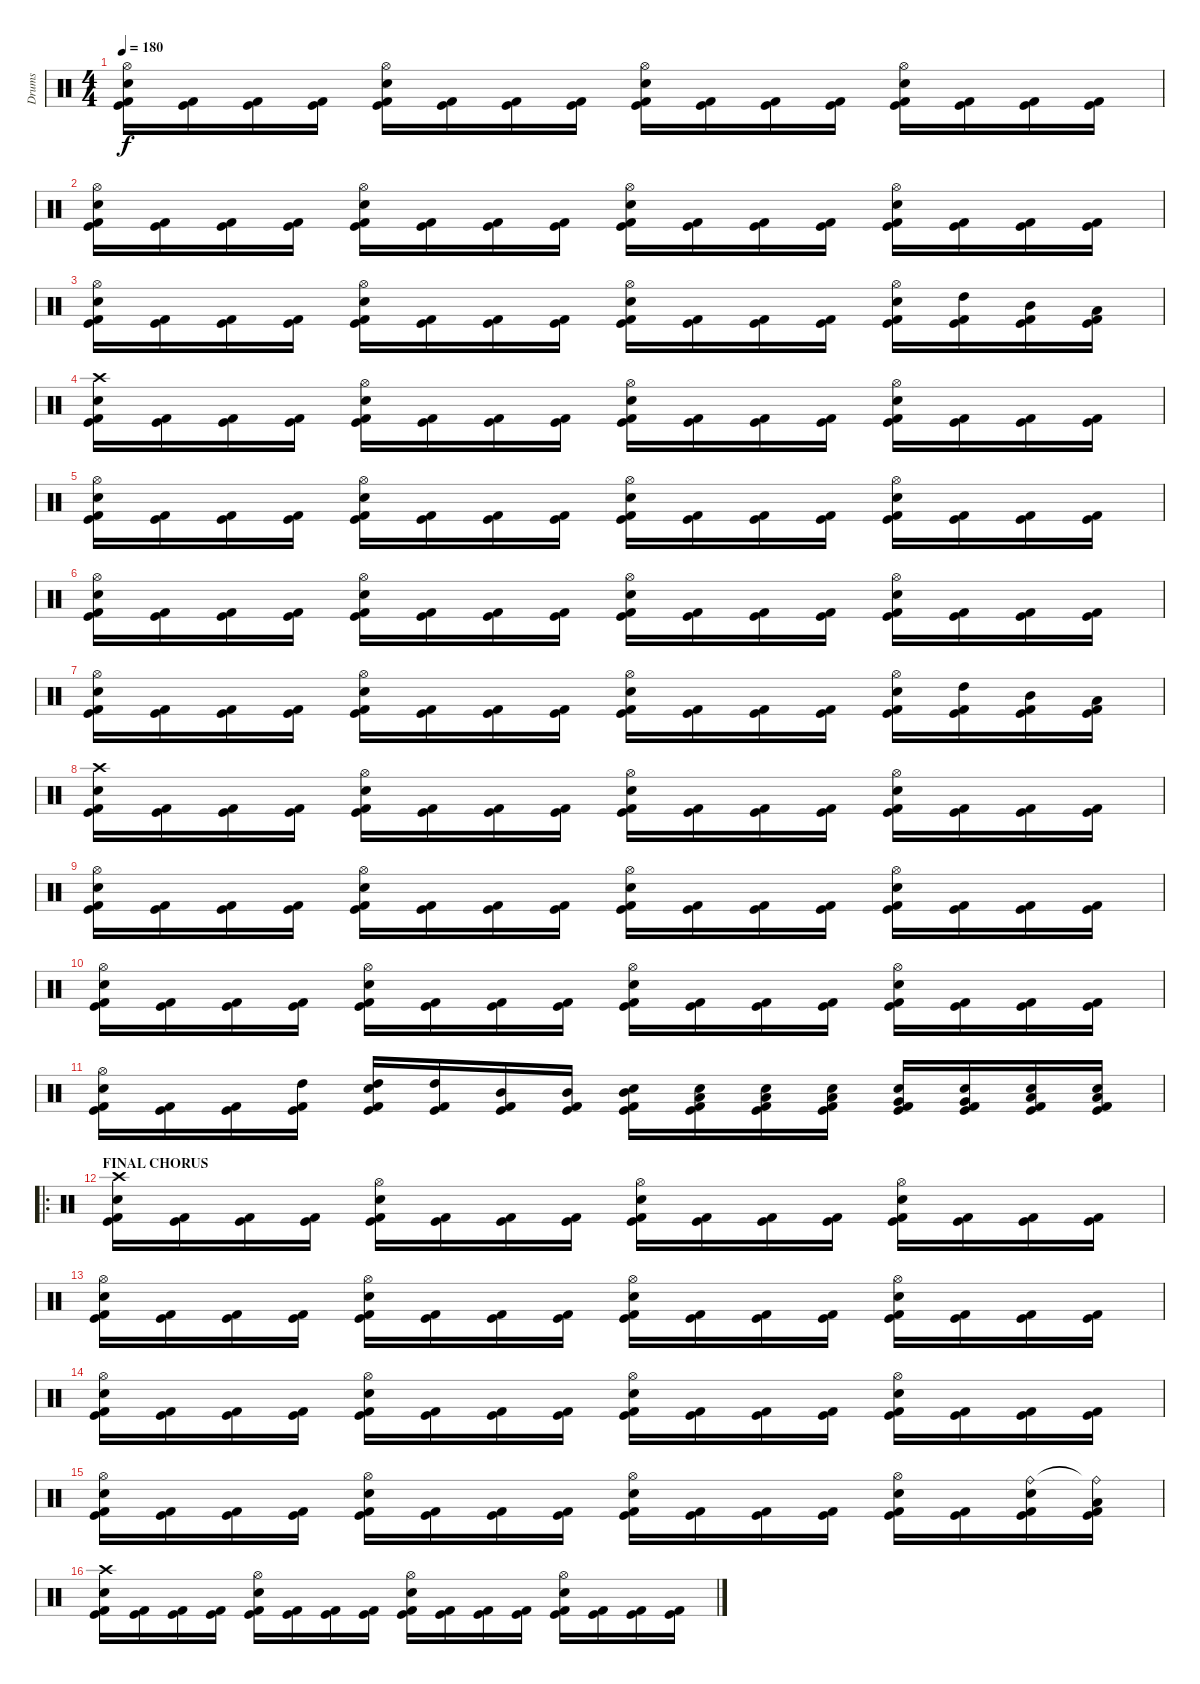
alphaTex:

\track ("Drums" "Drums") {instrument percussion}
\staff {score}
\articulation defaults
\ts (4 4)
\tempo 180
\clef neutral
\ks c
("Hi-Hat (open)" "Electric Snare (hit)" "Kick (hit)" "Kick (hit) 2").16{dy f} ("Kick (hit)" "Kick (hit) 2").16 ("Kick (hit)" "Kick (hit) 2").16 ("Kick (hit)" "Kick (hit) 2").16 ("Hi-Hat (open)" "Electric Snare (hit)" "Kick (hit)" "Kick (hit) 2").16 ("Kick (hit)" "Kick (hit) 2").16 ("Kick (hit)" "Kick (hit) 2").16 ("Kick (hit)" "Kick (hit) 2").16 ("Hi-Hat (open)" "Electric Snare (hit)" "Kick (hit)" "Kick (hit) 2").16 ("Kick (hit)" "Kick (hit) 2").16 ("Kick (hit)" "Kick (hit) 2").16 ("Kick (hit)" "Kick (hit) 2").16 ("Hi-Hat (open)" "Electric Snare (hit)" "Kick (hit)" "Kick (hit) 2").16 ("Kick (hit)" "Kick (hit) 2").16 ("Kick (hit)" "Kick (hit) 2").16 ("Kick (hit)" "Kick (hit) 2").16 |
("Hi-Hat (open)" "Electric Snare (hit)" "Kick (hit)" "Kick (hit) 2").16 ("Kick (hit)" "Kick (hit) 2").16 ("Kick (hit)" "Kick (hit) 2").16 ("Kick (hit)" "Kick (hit) 2").16 ("Hi-Hat (open)" "Electric Snare (hit)" "Kick (hit)" "Kick (hit) 2").16 ("Kick (hit)" "Kick (hit) 2").16 ("Kick (hit)" "Kick (hit) 2").16 ("Kick (hit)" "Kick (hit) 2").16 ("Hi-Hat (open)" "Electric Snare (hit)" "Kick (hit)" "Kick (hit) 2").16 ("Kick (hit)" "Kick (hit) 2").16 ("Kick (hit)" "Kick (hit) 2").16 ("Kick (hit)" "Kick (hit) 2").16 ("Hi-Hat (open)" "Electric Snare (hit)" "Kick (hit)" "Kick (hit) 2").16 ("Kick (hit)" "Kick (hit) 2").16 ("Kick (hit)" "Kick (hit) 2").16 ("Kick (hit)" "Kick (hit) 2").16 |
("Hi-Hat (open)" "Electric Snare (hit)" "Kick (hit)" "Kick (hit) 2").16 ("Kick (hit)" "Kick (hit) 2").16 ("Kick (hit)" "Kick (hit) 2").16 ("Kick (hit)" "Kick (hit) 2").16 ("Hi-Hat (open)" "Electric Snare (hit)" "Kick (hit)" "Kick (hit) 2").16 ("Kick (hit)" "Kick (hit) 2").16 ("Kick (hit)" "Kick (hit) 2").16 ("Kick (hit)" "Kick (hit) 2").16 ("Hi-Hat (open)" "Electric Snare (hit)" "Kick (hit)" "Kick (hit) 2").16 ("Kick (hit)" "Kick (hit) 2").16 ("Kick (hit)" "Kick (hit) 2").16 ("Kick (hit)" "Kick (hit) 2").16 ("Hi-Hat (open)" "Electric Snare (hit)" "Kick (hit)" "Kick (hit) 2").16 ("High Tom (hit)" "Kick (hit)" "Kick (hit) 2").16 ("Mid Tom (hit)" "Kick (hit)" "Kick (hit) 2").16 ("Low Tom (hit)" "Kick (hit)" "Kick (hit) 2").16 |
("Crash high (hit)" "Electric Snare (hit)" "Kick (hit)" "Kick (hit) 2").16 ("Kick (hit)" "Kick (hit) 2").16 ("Kick (hit)" "Kick (hit) 2").16 ("Kick (hit)" "Kick (hit) 2").16 ("Hi-Hat (open)" "Electric Snare (hit)" "Kick (hit)" "Kick (hit) 2").16 ("Kick (hit)" "Kick (hit) 2").16 ("Kick (hit)" "Kick (hit) 2").16 ("Kick (hit)" "Kick (hit) 2").16 ("Hi-Hat (open)" "Electric Snare (hit)" "Kick (hit)" "Kick (hit) 2").16 ("Kick (hit)" "Kick (hit) 2").16 ("Kick (hit)" "Kick (hit) 2").16 ("Kick (hit)" "Kick (hit) 2").16 ("Hi-Hat (open)" "Electric Snare (hit)" "Kick (hit)" "Kick (hit) 2").16 ("Kick (hit)" "Kick (hit) 2").16 ("Kick (hit)" "Kick (hit) 2").16 ("Kick (hit)" "Kick (hit) 2").16 |
("Hi-Hat (open)" "Electric Snare (hit)" "Kick (hit)" "Kick (hit) 2").16 ("Kick (hit)" "Kick (hit) 2").16 ("Kick (hit)" "Kick (hit) 2").16 ("Kick (hit)" "Kick (hit) 2").16 ("Hi-Hat (open)" "Electric Snare (hit)" "Kick (hit)" "Kick (hit) 2").16 ("Kick (hit)" "Kick (hit) 2").16 ("Kick (hit)" "Kick (hit) 2").16 ("Kick (hit)" "Kick (hit) 2").16 ("Hi-Hat (open)" "Electric Snare (hit)" "Kick (hit)" "Kick (hit) 2").16 ("Kick (hit)" "Kick (hit) 2").16 ("Kick (hit)" "Kick (hit) 2").16 ("Kick (hit)" "Kick (hit) 2").16 ("Hi-Hat (open)" "Electric Snare (hit)" "Kick (hit)" "Kick (hit) 2").16 ("Kick (hit)" "Kick (hit) 2").16 ("Kick (hit)" "Kick (hit) 2").16 ("Kick (hit)" "Kick (hit) 2").16 |
("Hi-Hat (open)" "Electric Snare (hit)" "Kick (hit)" "Kick (hit) 2").16 ("Kick (hit)" "Kick (hit) 2").16 ("Kick (hit)" "Kick (hit) 2").16 ("Kick (hit)" "Kick (hit) 2").16 ("Hi-Hat (open)" "Electric Snare (hit)" "Kick (hit)" "Kick (hit) 2").16 ("Kick (hit)" "Kick (hit) 2").16 ("Kick (hit)" "Kick (hit) 2").16 ("Kick (hit)" "Kick (hit) 2").16 ("Hi-Hat (open)" "Electric Snare (hit)" "Kick (hit)" "Kick (hit) 2").16 ("Kick (hit)" "Kick (hit) 2").16 ("Kick (hit)" "Kick (hit) 2").16 ("Kick (hit)" "Kick (hit) 2").16 ("Hi-Hat (open)" "Electric Snare (hit)" "Kick (hit)" "Kick (hit) 2").16 ("Kick (hit)" "Kick (hit) 2").16 ("Kick (hit)" "Kick (hit) 2").16 ("Kick (hit)" "Kick (hit) 2").16 |
("Hi-Hat (open)" "Electric Snare (hit)" "Kick (hit)" "Kick (hit) 2").16 ("Kick (hit)" "Kick (hit) 2").16 ("Kick (hit)" "Kick (hit) 2").16 ("Kick (hit)" "Kick (hit) 2").16 ("Hi-Hat (open)" "Electric Snare (hit)" "Kick (hit)" "Kick (hit) 2").16 ("Kick (hit)" "Kick (hit) 2").16 ("Kick (hit)" "Kick (hit) 2").16 ("Kick (hit)" "Kick (hit) 2").16 ("Hi-Hat (open)" "Electric Snare (hit)" "Kick (hit)" "Kick (hit) 2").16 ("Kick (hit)" "Kick (hit) 2").16 ("Kick (hit)" "Kick (hit) 2").16 ("Kick (hit)" "Kick (hit) 2").16 ("Hi-Hat (open)" "Electric Snare (hit)" "Kick (hit)" "Kick (hit) 2").16 ("High Tom (hit)" "Kick (hit)" "Kick (hit) 2").16 ("Mid Tom (hit)" "Kick (hit)" "Kick (hit) 2").16 ("Low Tom (hit)" "Kick (hit)" "Kick (hit) 2").16 |
("Crash high (hit)" "Electric Snare (hit)" "Kick (hit)" "Kick (hit) 2").16 ("Kick (hit)" "Kick (hit) 2").16 ("Kick (hit)" "Kick (hit) 2").16 ("Kick (hit)" "Kick (hit) 2").16 ("Hi-Hat (open)" "Electric Snare (hit)" "Kick (hit)" "Kick (hit) 2").16 ("Kick (hit)" "Kick (hit) 2").16 ("Kick (hit)" "Kick (hit) 2").16 ("Kick (hit)" "Kick (hit) 2").16 ("Hi-Hat (open)" "Electric Snare (hit)" "Kick (hit)" "Kick (hit) 2").16 ("Kick (hit)" "Kick (hit) 2").16 ("Kick (hit)" "Kick (hit) 2").16 ("Kick (hit)" "Kick (hit) 2").16 ("Hi-Hat (open)" "Electric Snare (hit)" "Kick (hit)" "Kick (hit) 2").16 ("Kick (hit)" "Kick (hit) 2").16 ("Kick (hit)" "Kick (hit) 2").16 ("Kick (hit)" "Kick (hit) 2").16 |
("Hi-Hat (open)" "Electric Snare (hit)" "Kick (hit)" "Kick (hit) 2").16 ("Kick (hit)" "Kick (hit) 2").16 ("Kick (hit)" "Kick (hit) 2").16 ("Kick (hit)" "Kick (hit) 2").16 ("Hi-Hat (open)" "Electric Snare (hit)" "Kick (hit)" "Kick (hit) 2").16 ("Kick (hit)" "Kick (hit) 2").16 ("Kick (hit)" "Kick (hit) 2").16 ("Kick (hit)" "Kick (hit) 2").16 ("Hi-Hat (open)" "Electric Snare (hit)" "Kick (hit)" "Kick (hit) 2").16 ("Kick (hit)" "Kick (hit) 2").16 ("Kick (hit)" "Kick (hit) 2").16 ("Kick (hit)" "Kick (hit) 2").16 ("Hi-Hat (open)" "Electric Snare (hit)" "Kick (hit)" "Kick (hit) 2").16 ("Kick (hit)" "Kick (hit) 2").16 ("Kick (hit)" "Kick (hit) 2").16 ("Kick (hit)" "Kick (hit) 2").16 |
("Hi-Hat (open)" "Electric Snare (hit)" "Kick (hit)" "Kick (hit) 2").16 ("Kick (hit)" "Kick (hit) 2").16 ("Kick (hit)" "Kick (hit) 2").16 ("Kick (hit)" "Kick (hit) 2").16 ("Hi-Hat (open)" "Electric Snare (hit)" "Kick (hit)" "Kick (hit) 2").16 ("Kick (hit)" "Kick (hit) 2").16 ("Kick (hit)" "Kick (hit) 2").16 ("Kick (hit)" "Kick (hit) 2").16 ("Hi-Hat (open)" "Electric Snare (hit)" "Kick (hit)" "Kick (hit) 2").16 ("Kick (hit)" "Kick (hit) 2").16 ("Kick (hit)" "Kick (hit) 2").16 ("Kick (hit)" "Kick (hit) 2").16 ("Hi-Hat (open)" "Electric Snare (hit)" "Kick (hit)" "Kick (hit) 2").16 ("Kick (hit)" "Kick (hit) 2").16 ("Kick (hit)" "Kick (hit) 2").16 ("Kick (hit)" "Kick (hit) 2").16 |
("Hi-Hat (open)" "Electric Snare (hit)" "Kick (hit)" "Kick (hit) 2").16 ("Kick (hit)" "Kick (hit) 2").16 ("Kick (hit)" "Kick (hit) 2").16 ("High Tom (hit)" "Kick (hit)" "Kick (hit) 2").16 ("High Tom (hit)" "Electric Snare (hit)" "Kick (hit)" "Kick (hit) 2").16 ("High Tom (hit)" "Kick (hit)" "Kick (hit) 2").16 ("Mid Tom (hit)" "Kick (hit)" "Kick (hit) 2").16 ("Mid Tom (hit)" "Kick (hit)" "Kick (hit) 2").16 ("Mid Tom (hit)" "Electric Snare (hit)" "Kick (hit)" "Kick (hit) 2").16 ("Low Tom (hit)" "Electric Snare (hit)" "Kick (hit)" "Kick (hit) 2").16 ("Low Tom (hit)" "Electric Snare (hit)" "Kick (hit)" "Kick (hit) 2").16 ("Low Tom (hit)" "Electric Snare (hit)" "Kick (hit)" "Kick (hit) 2").16 ("Very Low Tom (hit)" "Electric Snare (hit)" "Kick (hit)" "Kick (hit) 2").16 ("Very Low Tom (hit)" "Electric Snare (hit)" "Kick (hit)" "Kick (hit) 2").16 ("Low Floor Tom (hit)" "Electric Snare (hit)" "Kick (hit)" "Kick (hit) 2").16 ("Low Floor Tom (hit)" "Electric Snare (hit)" "Kick (hit)" "Kick (hit) 2").16 |
\ro
\section ("" "FINAL CHORUS")
("Crash high (hit)" "Electric Snare (hit)" "Kick (hit)" "Kick (hit) 2").16 ("Kick (hit)" "Kick (hit) 2").16 ("Kick (hit)" "Kick (hit) 2").16 ("Kick (hit)" "Kick (hit) 2").16 ("Hi-Hat (open)" "Electric Snare (hit)" "Kick (hit)" "Kick (hit) 2").16 ("Kick (hit)" "Kick (hit) 2").16 ("Kick (hit)" "Kick (hit) 2").16 ("Kick (hit)" "Kick (hit) 2").16 ("Hi-Hat (open)" "Electric Snare (hit)" "Kick (hit)" "Kick (hit) 2").16 ("Kick (hit)" "Kick (hit) 2").16 ("Kick (hit)" "Kick (hit) 2").16 ("Kick (hit)" "Kick (hit) 2").16 ("Hi-Hat (open)" "Electric Snare (hit)" "Kick (hit)" "Kick (hit) 2").16 ("Kick (hit)" "Kick (hit) 2").16 ("Kick (hit)" "Kick (hit) 2").16 ("Kick (hit)" "Kick (hit) 2").16 |
("Hi-Hat (open)" "Electric Snare (hit)" "Kick (hit)" "Kick (hit) 2").16 ("Kick (hit)" "Kick (hit) 2").16 ("Kick (hit)" "Kick (hit) 2").16 ("Kick (hit)" "Kick (hit) 2").16 ("Hi-Hat (open)" "Electric Snare (hit)" "Kick (hit)" "Kick (hit) 2").16 ("Kick (hit)" "Kick (hit) 2").16 ("Kick (hit)" "Kick (hit) 2").16 ("Kick (hit)" "Kick (hit) 2").16 ("Hi-Hat (open)" "Electric Snare (hit)" "Kick (hit)" "Kick (hit) 2").16 ("Kick (hit)" "Kick (hit) 2").16 ("Kick (hit)" "Kick (hit) 2").16 ("Kick (hit)" "Kick (hit) 2").16 ("Hi-Hat (open)" "Electric Snare (hit)" "Kick (hit)" "Kick (hit) 2").16 ("Kick (hit)" "Kick (hit) 2").16 ("Kick (hit)" "Kick (hit) 2").16 ("Kick (hit)" "Kick (hit) 2").16 |
("Hi-Hat (open)" "Electric Snare (hit)" "Kick (hit)" "Kick (hit) 2").16 ("Kick (hit)" "Kick (hit) 2").16 ("Kick (hit)" "Kick (hit) 2").16 ("Kick (hit)" "Kick (hit) 2").16 ("Hi-Hat (open)" "Electric Snare (hit)" "Kick (hit)" "Kick (hit) 2").16 ("Kick (hit)" "Kick (hit) 2").16 ("Kick (hit)" "Kick (hit) 2").16 ("Kick (hit)" "Kick (hit) 2").16 ("Hi-Hat (open)" "Electric Snare (hit)" "Kick (hit)" "Kick (hit) 2").16 ("Kick (hit)" "Kick (hit) 2").16 ("Kick (hit)" "Kick (hit) 2").16 ("Kick (hit)" "Kick (hit) 2").16 ("Hi-Hat (open)" "Electric Snare (hit)" "Kick (hit)" "Kick (hit) 2").16 ("Kick (hit)" "Kick (hit) 2").16 ("Kick (hit)" "Kick (hit) 2").16 ("Kick (hit)" "Kick (hit) 2").16 |
("Hi-Hat (open)" "Electric Snare (hit)" "Kick (hit)" "Kick (hit) 2").16 ("Kick (hit)" "Kick (hit) 2").16 ("Kick (hit)" "Kick (hit) 2").16 ("Kick (hit)" "Kick (hit) 2").16 ("Hi-Hat (open)" "Electric Snare (hit)" "Kick (hit)" "Kick (hit) 2").16 ("Kick (hit)" "Kick (hit) 2").16 ("Kick (hit)" "Kick (hit) 2").16 ("Kick (hit)" "Kick (hit) 2").16 ("Hi-Hat (open)" "Electric Snare (hit)" "Kick (hit)" "Kick (hit) 2").16 ("Kick (hit)" "Kick (hit) 2").16 ("Kick (hit)" "Kick (hit) 2").16 ("Kick (hit)" "Kick (hit) 2").16 ("Hi-Hat (open)" "Electric Snare (hit)" "Kick (hit)" "Kick (hit) 2").16 ("Kick (hit)" "Kick (hit) 2").16 ("Ride (bell)" "Electric Snare (hit)" "Kick (hit)" "Kick (hit) 2").16 ("Ride (bell)"{t} "Low Tom (hit)" "Kick (hit)" "Kick (hit) 2").16 |
("Crash high (hit)" "Electric Snare (hit)" "Kick (hit)" "Kick (hit) 2").16 ("Kick (hit)" "Kick (hit) 2").16 ("Kick (hit)" "Kick (hit) 2").16 ("Kick (hit)" "Kick (hit) 2").16 ("Hi-Hat (open)" "Electric Snare (hit)" "Kick (hit)" "Kick (hit) 2").16 ("Kick (hit)" "Kick (hit) 2").16 ("Kick (hit)" "Kick (hit) 2").16 ("Kick (hit)" "Kick (hit) 2").16 ("Hi-Hat (open)" "Electric Snare (hit)" "Kick (hit)" "Kick (hit) 2").16 ("Kick (hit)" "Kick (hit) 2").16 ("Kick (hit)" "Kick (hit) 2").16 ("Kick (hit)" "Kick (hit) 2").16 ("Hi-Hat (open)" "Electric Snare (hit)" "Kick (hit)" "Kick (hit) 2").16 ("Kick (hit)" "Kick (hit) 2").16 ("Kick (hit)" "Kick (hit) 2").16 ("Kick (hit)" "Kick (hit) 2").16
